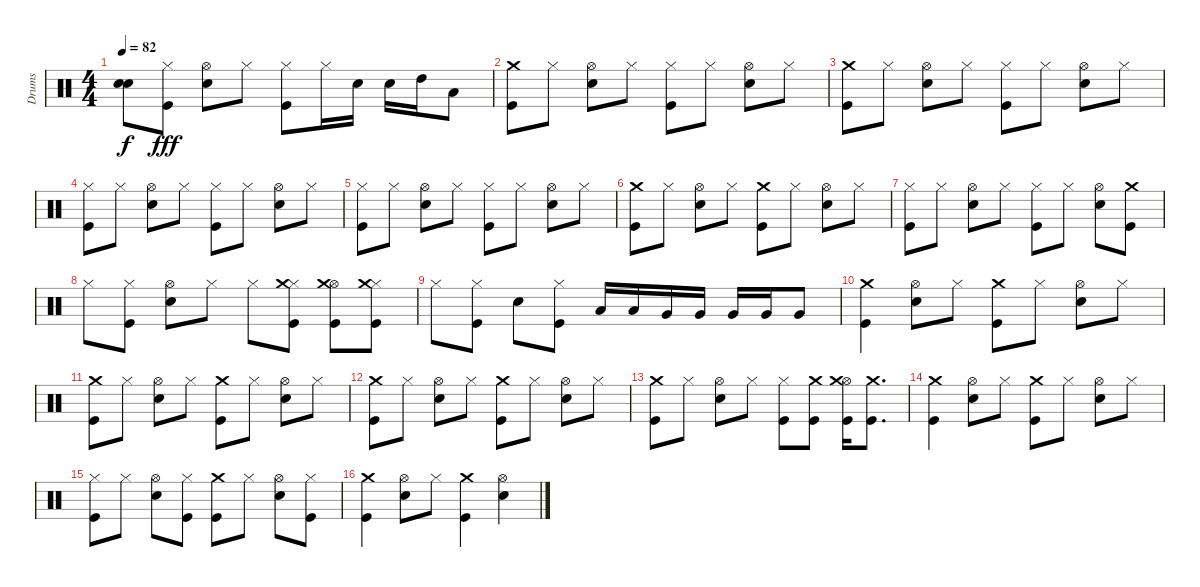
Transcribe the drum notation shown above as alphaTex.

\track ("Drums" "Drums") {instrument percussion}
\staff {score}
\articulation defaults
\ts (4 4)
\tempo 82
\clef neutral
\ks c
("Snare (hit)"{t} "Snare (hit)"{t}).8{dy f} ("Hi-Hat (closed)" "Kick (hit)").8{dy fff} ("Hi-Hat (open)" "Snare (hit) 2").8 "Hi-Hat (closed)".8 ("Hi-Hat (closed)" "Kick (hit)").8 "Hi-Hat (closed)".16 "Snare (hit) 2".16 "Snare (hit) 2".16 "High Tom (hit)".16 "Low Tom (hit)".8 |
("Crash medium (hit)" "Kick (hit)").8 "Hi-Hat (closed)".8 ("Hi-Hat (open)" "Snare (hit) 2").8 "Hi-Hat (closed)".8 ("Hi-Hat (closed)" "Kick (hit)").8 "Hi-Hat (closed)".8 ("Hi-Hat (open)" "Snare (hit) 2").8 "Hi-Hat (closed)".8 |
("Crash medium (hit)" "Kick (hit)").8 "Hi-Hat (closed)".8 ("Hi-Hat (open)" "Snare (hit) 2").8 "Hi-Hat (closed)".8 ("Hi-Hat (closed)" "Kick (hit)").8 "Hi-Hat (closed)".8 ("Hi-Hat (open)" "Snare (hit) 2").8 "Hi-Hat (closed)".8 |
("Hi-Hat (closed)" "Kick (hit)").8 "Hi-Hat (closed)".8 ("Hi-Hat (open)" "Snare (hit) 2").8 "Hi-Hat (closed)".8 ("Hi-Hat (closed)" "Kick (hit)").8 "Hi-Hat (closed)".8 ("Hi-Hat (open)" "Snare (hit) 2").8 "Hi-Hat (closed)".8 |
("Hi-Hat (closed)" "Kick (hit)").8 "Hi-Hat (closed)".8 ("Hi-Hat (open)" "Snare (hit) 2").8 "Hi-Hat (closed)".8 ("Hi-Hat (closed)" "Kick (hit)").8 "Hi-Hat (closed)".8 ("Hi-Hat (open)" "Snare (hit) 2").8 "Hi-Hat (closed)".8 |
("Crash medium (hit)" "Kick (hit)").8 "Hi-Hat (closed)".8 ("Hi-Hat (open)" "Snare (hit) 2").8 "Hi-Hat (closed)".8 ("Crash medium (hit)" "Kick (hit)").8 "Hi-Hat (closed)".8 ("Hi-Hat (open)" "Snare (hit) 2").8 "Hi-Hat (closed)".8 |
("Hi-Hat (closed)" "Kick (hit)").8 "Hi-Hat (closed)".8 ("Hi-Hat (open)" "Snare (hit) 2").8 "Hi-Hat (closed)".8 ("Hi-Hat (closed)" "Kick (hit)").8 "Hi-Hat (closed)".8 ("Hi-Hat (open)" "Snare (hit) 2").8 ("Crash medium (hit)" "Kick (hit)").8 |
"Hi-Hat (closed)".8 ("Hi-Hat (closed)" "Kick (hit)").8 ("Hi-Hat (open)" "Snare (hit) 2").8 "Hi-Hat (closed)".8 "Hi-Hat (closed)".8 ("Hi-Hat (closed)" "Crash medium (hit)" "Kick (hit)").8 ("Hi-Hat (open)" "Crash medium (hit)" "Kick (hit)").8 ("Hi-Hat (closed)" "Crash medium (hit)" "Kick (hit)").8 |
"Hi-Hat (closed)".8 ("Hi-Hat (closed)" "Kick (hit)").8 "Snare (hit) 2".8 ("Hi-Hat (closed)" "Kick (hit)").8 "Low Tom (hit)".16 "Low Tom (hit)".16 "Very Low Tom (hit)".16 "Very Low Tom (hit)".16 "Very Low Tom (hit)".16 "Very Low Tom (hit)".16 "Very Low Tom (hit)".8 |
("Crash medium (hit)" "Kick (hit)").4 ("Hi-Hat (open)" "Snare (hit) 2").8 "Hi-Hat (closed)".8 ("Crash medium (hit)" "Kick (hit)").8 "Hi-Hat (closed)".8 ("Hi-Hat (open)" "Snare (hit) 2").8 "Hi-Hat (closed)".8 |
("Crash medium (hit)" "Kick (hit)").8 "Hi-Hat (closed)".8 ("Hi-Hat (open)" "Snare (hit) 2").8 "Hi-Hat (closed)".8 ("Crash medium (hit)" "Kick (hit)").8 "Hi-Hat (closed)".8 ("Hi-Hat (open)" "Snare (hit) 2").8 "Hi-Hat (closed)".8 |
("Crash medium (hit)" "Kick (hit)").8 "Hi-Hat (closed)".8 ("Hi-Hat (open)" "Snare (hit) 2").8 "Hi-Hat (closed)".8 ("Crash medium (hit)" "Kick (hit)").8 "Hi-Hat (closed)".8 ("Hi-Hat (open)" "Snare (hit) 2").8 "Hi-Hat (closed)".8 |
("Crash medium (hit)" "Kick (hit)").8 "Hi-Hat (closed)".8 ("Hi-Hat (open)" "Snare (hit) 2").8 "Hi-Hat (closed)".8 ("Hi-Hat (closed)" "Kick (hit)").8 ("Crash medium (hit)" "Kick (hit)").8 ("Hi-Hat (open)" "Crash medium (hit)" "Kick (hit)").16 ("Crash medium (hit)" "Kick (hit)").8{d} |
("Crash medium (hit)" "Kick (hit)").4 ("Hi-Hat (open)" "Snare (hit) 2").8 "Hi-Hat (closed)".8 ("Crash medium (hit)" "Kick (hit)").8 "Hi-Hat (closed)".8 ("Hi-Hat (open)" "Snare (hit) 2").8 "Hi-Hat (closed)".8 |
("Hi-Hat (closed)" "Kick (hit)").8 "Hi-Hat (closed)".8 ("Hi-Hat (open)" "Snare (hit) 2").8 ("Hi-Hat (closed)" "Kick (hit)").8 ("Crash medium (hit)" "Kick (hit)").8 "Hi-Hat (closed)".8 ("Hi-Hat (open)" "Snare (hit) 2").8 ("Hi-Hat (closed)" "Kick (hit)").8 |
("Crash medium (hit)" "Kick (hit)").4 ("Hi-Hat (open)" "Snare (hit) 2").8 "Hi-Hat (closed)".8 ("Crash medium (hit)" "Kick (hit)").4 ("Hi-Hat (open)" "Snare (hit) 2").4
